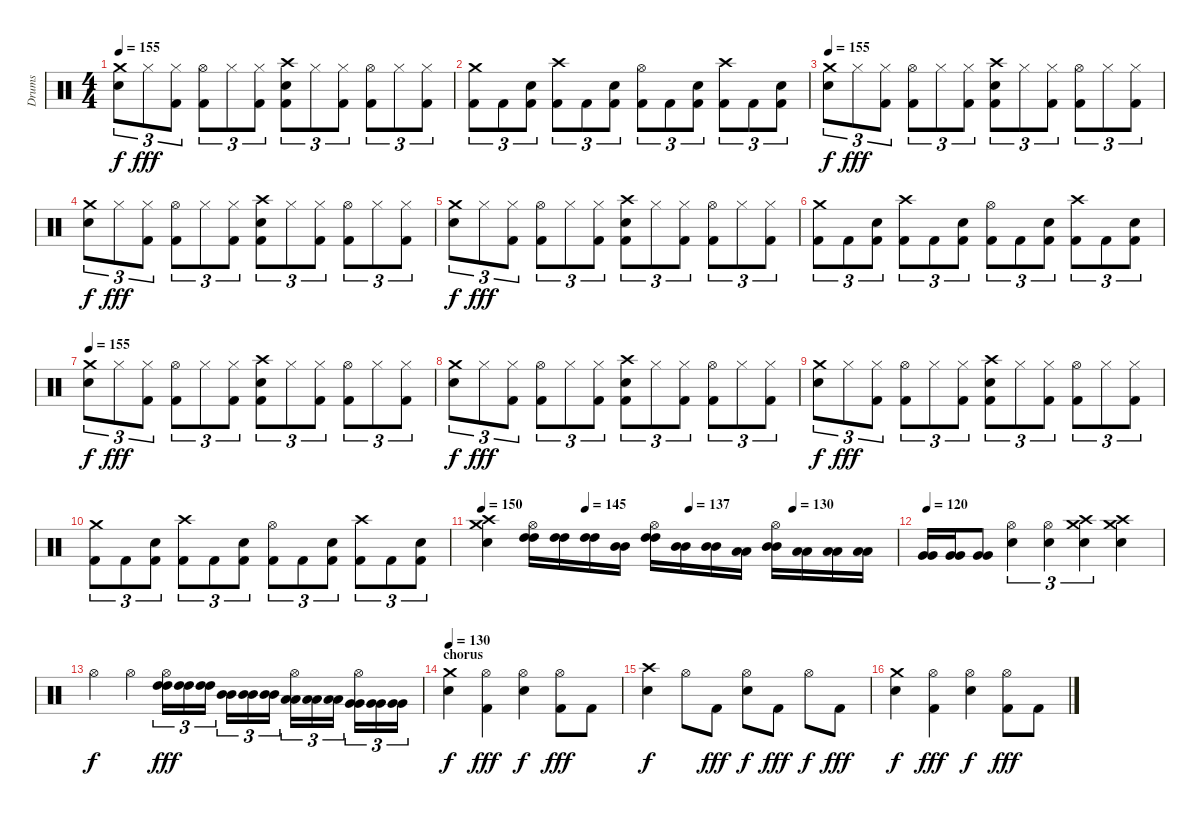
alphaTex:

\track ("Drums" "Drums") {instrument percussion}
\staff {score}
\articulation defaults
\ts (4 4)
\tempo 155
\clef neutral
\ks c
("Crash medium (hit)" "Electric Snare (hit)").8{tu (3 2) dy f} "Hi-Hat (closed)".8{tu (3 2) dy fff} ("Hi-Hat (closed)" "Kick (hit) 2").8{tu (3 2)} ("Hi-Hat (open)" "Kick (hit) 2").8{tu (3 2)} "Hi-Hat (closed)".8{tu (3 2)} ("Hi-Hat (closed)" "Kick (hit) 2").8{tu (3 2)} ("Crash high (hit)" "Electric Snare (hit)" "Kick (hit) 2").8{tu (3 2)} "Hi-Hat (closed)".8{tu (3 2)} ("Hi-Hat (closed)" "Kick (hit) 2").8{tu (3 2)} ("Hi-Hat (open)" "Kick (hit) 2").8{tu (3 2)} "Hi-Hat (closed)".8{tu (3 2)} ("Hi-Hat (closed)" "Kick (hit) 2").8{tu (3 2)} |
("Crash medium (hit)" "Kick (hit) 2").8{tu (3 2)} "Kick (hit) 2".8{tu (3 2)} ("Electric Snare (hit)" "Kick (hit) 2").8{tu (3 2)} ("Crash high (hit)" "Kick (hit) 2").8{tu (3 2)} "Kick (hit) 2".8{tu (3 2)} ("Electric Snare (hit)" "Kick (hit) 2").8{tu (3 2)} ("Hi-Hat (open)" "Kick (hit) 2").8{tu (3 2)} "Kick (hit) 2".8{tu (3 2)} ("Electric Snare (hit)" "Kick (hit) 2").8{tu (3 2)} ("Crash high (hit)" "Kick (hit) 2").8{tu (3 2)} "Kick (hit) 2".8{tu (3 2)} ("Electric Snare (hit)" "Kick (hit) 2").8{tu (3 2)} |
\tempo 155
("Crash medium (hit)" "Electric Snare (hit)").8{tu (3 2) dy f} "Hi-Hat (closed)".8{tu (3 2) dy fff} ("Hi-Hat (closed)" "Kick (hit) 2").8{tu (3 2)} ("Hi-Hat (open)" "Kick (hit) 2").8{tu (3 2)} "Hi-Hat (closed)".8{tu (3 2)} ("Hi-Hat (closed)" "Kick (hit) 2").8{tu (3 2)} ("Crash high (hit)" "Electric Snare (hit)" "Kick (hit) 2").8{tu (3 2)} "Hi-Hat (closed)".8{tu (3 2)} ("Hi-Hat (closed)" "Kick (hit) 2").8{tu (3 2)} ("Hi-Hat (open)" "Kick (hit) 2").8{tu (3 2)} "Hi-Hat (closed)".8{tu (3 2)} ("Hi-Hat (closed)" "Kick (hit) 2").8{tu (3 2)} |
("Crash medium (hit)" "Electric Snare (hit)").8{tu (3 2) dy f} "Hi-Hat (closed)".8{tu (3 2) dy fff} ("Hi-Hat (closed)" "Kick (hit) 2").8{tu (3 2)} ("Hi-Hat (open)" "Kick (hit) 2").8{tu (3 2)} "Hi-Hat (closed)".8{tu (3 2)} ("Hi-Hat (closed)" "Kick (hit) 2").8{tu (3 2)} ("Crash high (hit)" "Electric Snare (hit)" "Kick (hit) 2").8{tu (3 2)} "Hi-Hat (closed)".8{tu (3 2)} ("Hi-Hat (closed)" "Kick (hit) 2").8{tu (3 2)} ("Hi-Hat (open)" "Kick (hit) 2").8{tu (3 2)} "Hi-Hat (closed)".8{tu (3 2)} ("Hi-Hat (closed)" "Kick (hit) 2").8{tu (3 2)} |
("Crash medium (hit)" "Electric Snare (hit)").8{tu (3 2) dy f} "Hi-Hat (closed)".8{tu (3 2) dy fff} ("Hi-Hat (closed)" "Kick (hit) 2").8{tu (3 2)} ("Hi-Hat (open)" "Kick (hit) 2").8{tu (3 2)} "Hi-Hat (closed)".8{tu (3 2)} ("Hi-Hat (closed)" "Kick (hit) 2").8{tu (3 2)} ("Crash high (hit)" "Electric Snare (hit)" "Kick (hit) 2").8{tu (3 2)} "Hi-Hat (closed)".8{tu (3 2)} ("Hi-Hat (closed)" "Kick (hit) 2").8{tu (3 2)} ("Hi-Hat (open)" "Kick (hit) 2").8{tu (3 2)} "Hi-Hat (closed)".8{tu (3 2)} ("Hi-Hat (closed)" "Kick (hit) 2").8{tu (3 2)} |
("Crash medium (hit)" "Kick (hit) 2").8{tu (3 2)} "Kick (hit) 2".8{tu (3 2)} ("Electric Snare (hit)" "Kick (hit) 2").8{tu (3 2)} ("Crash high (hit)" "Kick (hit) 2").8{tu (3 2)} "Kick (hit) 2".8{tu (3 2)} ("Electric Snare (hit)" "Kick (hit) 2").8{tu (3 2)} ("Hi-Hat (open)" "Kick (hit) 2").8{tu (3 2)} "Kick (hit) 2".8{tu (3 2)} ("Electric Snare (hit)" "Kick (hit) 2").8{tu (3 2)} ("Crash high (hit)" "Kick (hit) 2").8{tu (3 2)} "Kick (hit) 2".8{tu (3 2)} ("Electric Snare (hit)" "Kick (hit) 2").8{tu (3 2)} |
\tempo 155
("Crash medium (hit)" "Electric Snare (hit)").8{tu (3 2) dy f} "Hi-Hat (closed)".8{tu (3 2) dy fff} ("Hi-Hat (closed)" "Kick (hit) 2").8{tu (3 2)} ("Hi-Hat (open)" "Kick (hit) 2").8{tu (3 2)} "Hi-Hat (closed)".8{tu (3 2)} ("Hi-Hat (closed)" "Kick (hit) 2").8{tu (3 2)} ("Crash high (hit)" "Electric Snare (hit)" "Kick (hit) 2").8{tu (3 2)} "Hi-Hat (closed)".8{tu (3 2)} ("Hi-Hat (closed)" "Kick (hit) 2").8{tu (3 2)} ("Hi-Hat (open)" "Kick (hit) 2").8{tu (3 2)} "Hi-Hat (closed)".8{tu (3 2)} ("Hi-Hat (closed)" "Kick (hit) 2").8{tu (3 2)} |
("Crash medium (hit)" "Electric Snare (hit)").8{tu (3 2) dy f} "Hi-Hat (closed)".8{tu (3 2) dy fff} ("Hi-Hat (closed)" "Kick (hit) 2").8{tu (3 2)} ("Hi-Hat (open)" "Kick (hit) 2").8{tu (3 2)} "Hi-Hat (closed)".8{tu (3 2)} ("Hi-Hat (closed)" "Kick (hit) 2").8{tu (3 2)} ("Crash high (hit)" "Electric Snare (hit)" "Kick (hit) 2").8{tu (3 2)} "Hi-Hat (closed)".8{tu (3 2)} ("Hi-Hat (closed)" "Kick (hit) 2").8{tu (3 2)} ("Hi-Hat (open)" "Kick (hit) 2").8{tu (3 2)} "Hi-Hat (closed)".8{tu (3 2)} ("Hi-Hat (closed)" "Kick (hit) 2").8{tu (3 2)} |
("Crash medium (hit)" "Electric Snare (hit)").8{tu (3 2) dy f} "Hi-Hat (closed)".8{tu (3 2) dy fff} ("Hi-Hat (closed)" "Kick (hit) 2").8{tu (3 2)} ("Hi-Hat (open)" "Kick (hit) 2").8{tu (3 2)} "Hi-Hat (closed)".8{tu (3 2)} ("Hi-Hat (closed)" "Kick (hit) 2").8{tu (3 2)} ("Crash high (hit)" "Electric Snare (hit)" "Kick (hit) 2").8{tu (3 2)} "Hi-Hat (closed)".8{tu (3 2)} ("Hi-Hat (closed)" "Kick (hit) 2").8{tu (3 2)} ("Hi-Hat (open)" "Kick (hit) 2").8{tu (3 2)} "Hi-Hat (closed)".8{tu (3 2)} ("Hi-Hat (closed)" "Kick (hit) 2").8{tu (3 2)} |
("Crash medium (hit)" "Kick (hit) 2").8{tu (3 2)} "Kick (hit) 2".8{tu (3 2)} ("Electric Snare (hit)" "Kick (hit) 2").8{tu (3 2)} ("Crash high (hit)" "Kick (hit) 2").8{tu (3 2)} "Kick (hit) 2".8{tu (3 2)} ("Electric Snare (hit)" "Kick (hit) 2").8{tu (3 2)} ("Hi-Hat (open)" "Kick (hit) 2").8{tu (3 2)} "Kick (hit) 2".8{tu (3 2)} ("Electric Snare (hit)" "Kick (hit) 2").8{tu (3 2)} ("Crash high (hit)" "Kick (hit) 2").8{tu (3 2)} "Kick (hit) 2".8{tu (3 2)} ("Electric Snare (hit)" "Kick (hit) 2").8{tu (3 2)} |
\tempo 150
\tempo (145 0.25)
\tempo (137 0.5)
\tempo (130 0.75)
("Crash medium (hit)" "Electric Snare (hit)" "Crash high (hit)").4 ("High Tom (hit)" "High Tom (hit)" "Hi-Hat (open)").16 ("High Tom (hit)" "High Tom (hit)").16 ("High Tom (hit)" "High Tom (hit)").16 ("Mid Tom (hit)" "Mid Tom (hit)").16 ("High Tom (hit)" "High Tom (hit)" "Hi-Hat (open)").16 ("Mid Tom (hit)" "Mid Tom (hit)").16 ("Mid Tom (hit)" "Mid Tom (hit)").16 ("Low Tom (hit)" "Low Tom (hit)").16 ("Mid Tom (hit)" "Mid Tom (hit)" "Hi-Hat (open)").16 ("Low Tom (hit)" "Low Tom (hit)").16 ("Low Tom (hit)" "Low Tom (hit)").16 ("Low Tom (hit)" "Low Tom (hit)").16 |
\tempo 120
("Very Low Tom (hit)" "Very Low Tom (hit)").16 ("Very Low Tom (hit)" "Very Low Tom (hit)").16 ("Very Low Tom (hit)" "Very Low Tom (hit)").8 ("Electric Snare (hit)" "Hi-Hat (open)").4{tu (3 2)} ("Electric Snare (hit)" "Hi-Hat (open)").4{tu (3 2)} ("Crash medium (hit)" "Electric Snare (hit)" "Crash high (hit)").4{tu (3 2)} ("Crash medium (hit)" "Electric Snare (hit)" "Crash high (hit)").4 |
"Hi-Hat (open)".4{dy f} "Hi-Hat (open)".4 ("High Tom (hit)" "High Tom (hit)" "Hi-Hat (open)").16{tu (3 2) dy fff} ("High Tom (hit)" "High Tom (hit)").16{tu (3 2)} ("High Tom (hit)" "High Tom (hit)").16{tu (3 2)} ("Mid Tom (hit)" "Mid Tom (hit)").16{tu (3 2)} ("Mid Tom (hit)" "Mid Tom (hit)").16{tu (3 2)} ("Mid Tom (hit)" "Mid Tom (hit)").16{tu (3 2)} ("Low Tom (hit)" "Low Tom (hit)" "Hi-Hat (open)").16{tu (3 2)} ("Low Tom (hit)" "Low Tom (hit)").16{tu (3 2)} ("Low Tom (hit)" "Low Tom (hit)").16{tu (3 2)} ("Very Low Tom (hit)" "Very Low Tom (hit)" "Hi-Hat (open)").16{tu (3 2)} ("Very Low Tom (hit)" "Very Low Tom (hit)").16{tu (3 2)} ("Very Low Tom (hit)" "Very Low Tom (hit)").16{tu (3 2)} |
\section ("" "chorus")
\tempo 130
("Crash medium (hit)" "Electric Snare (hit)").4{dy f} ("Hi-Hat (open)" "Kick (hit) 2").4{dy fff} ("Hi-Hat (open)" "Electric Snare (hit)").4{dy f} ("Hi-Hat (open)" "Kick (hit) 2").8{dy fff} "Kick (hit) 2".8 |
("Crash high (hit)" "Electric Snare (hit)").4{dy f} "Hi-Hat (open)".8 "Kick (hit) 2".8{dy fff} ("Hi-Hat (open)" "Electric Snare (hit)").8{dy f} "Kick (hit) 2".8{dy fff} "Hi-Hat (open)".8{dy f} "Kick (hit) 2".8{dy fff} |
("Crash medium (hit)" "Electric Snare (hit)").4{dy f} ("Hi-Hat (open)" "Kick (hit) 2").4{dy fff} ("Hi-Hat (open)" "Electric Snare (hit)").4{dy f} ("Hi-Hat (open)" "Kick (hit) 2").8{dy fff} "Kick (hit) 2".8
